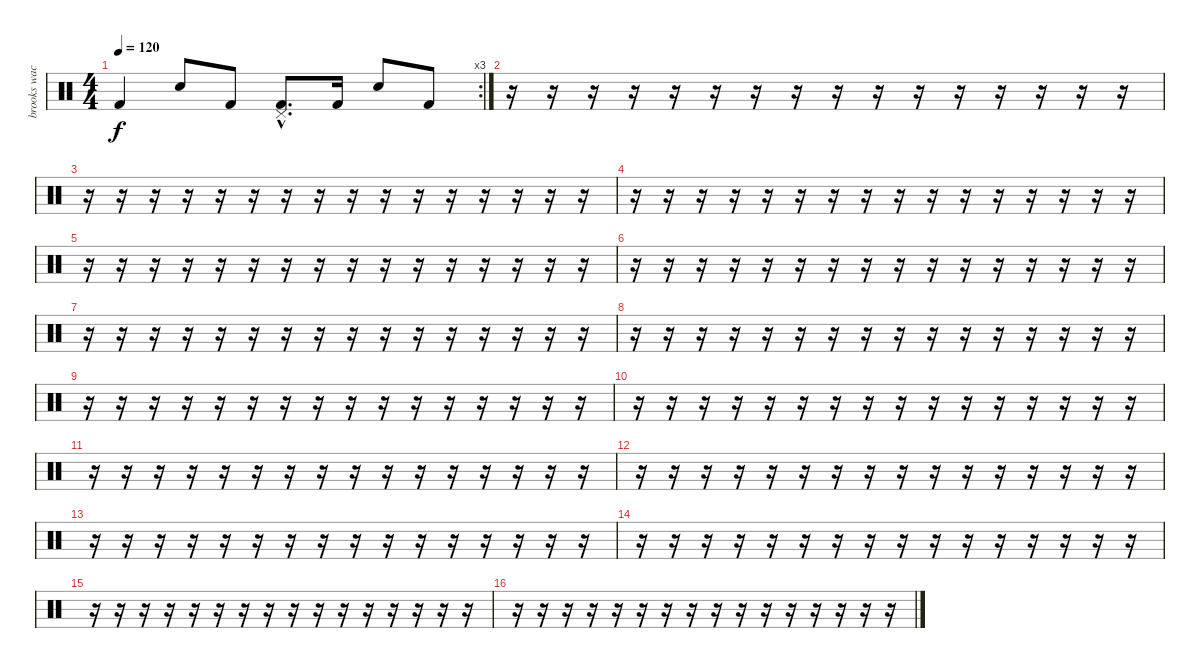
\track ("brooks wackerman" "brooks wac") {instrument percussion}
\staff {score}
\articulation defaults
\rc 3
\ts (4 4)
\tempo 120
\clef neutral
\ks c "Kick (hit) 2".4{dy f} "Electric Snare (hit)".8 "Kick (hit) 2".8
("Pedal Hi-Hat (hit)"{hac} "Kick (hit) 2"{hac}).8{d} "Kick (hit) 2".16 "Electric Snare (hit)".8 "Kick (hit) 2".8 |
r.16 r.16 r.16 r.16 r.16 r.16 r.16 r.16 r.16 r.16 r.16 r.16 r.16 r.16 r.16 r.16 |
r.16 r.16 r.16 r.16 r.16 r.16 r.16 r.16 r.16 r.16 r.16 r.16 r.16 r.16 r.16 r.16 |
r.16 r.16 r.16 r.16 r.16 r.16 r.16 r.16 r.16 r.16 r.16 r.16 r.16 r.16 r.16 r.16 |
r.16 r.16 r.16 r.16 r.16 r.16 r.16 r.16 r.16 r.16 r.16 r.16 r.16 r.16 r.16 r.16 |
r.16 r.16 r.16 r.16 r.16 r.16 r.16 r.16 r.16 r.16 r.16 r.16 r.16 r.16 r.16 r.16 |
r.16 r.16 r.16 r.16 r.16 r.16 r.16 r.16 r.16 r.16 r.16 r.16 r.16 r.16 r.16 r.16 |
r.16 r.16 r.16 r.16 r.16 r.16 r.16 r.16 r.16 r.16 r.16 r.16 r.16 r.16 r.16 r.16 |
r.16 r.16 r.16 r.16 r.16 r.16 r.16 r.16 r.16 r.16 r.16 r.16 r.16 r.16 r.16 r.16 |
r.16 r.16 r.16 r.16 r.16 r.16 r.16 r.16 r.16 r.16 r.16 r.16 r.16 r.16 r.16 r.16 |
r.16 r.16 r.16 r.16 r.16 r.16 r.16 r.16 r.16 r.16 r.16 r.16 r.16 r.16 r.16 r.16 |
r.16 r.16 r.16 r.16 r.16 r.16 r.16 r.16 r.16 r.16 r.16 r.16 r.16 r.16 r.16 r.16 |
r.16 r.16 r.16 r.16 r.16 r.16 r.16 r.16 r.16 r.16 r.16 r.16 r.16 r.16 r.16 r.16 |
r.16 r.16 r.16 r.16 r.16 r.16 r.16 r.16 r.16 r.16 r.16 r.16 r.16 r.16 r.16 r.16 |
r.16 r.16 r.16 r.16 r.16 r.16 r.16 r.16 r.16 r.16 r.16 r.16 r.16 r.16 r.16 r.16 |
r.16 r.16 r.16 r.16 r.16 r.16 r.16 r.16 r.16 r.16 r.16 r.16 r.16 r.16 r.16 r.16
